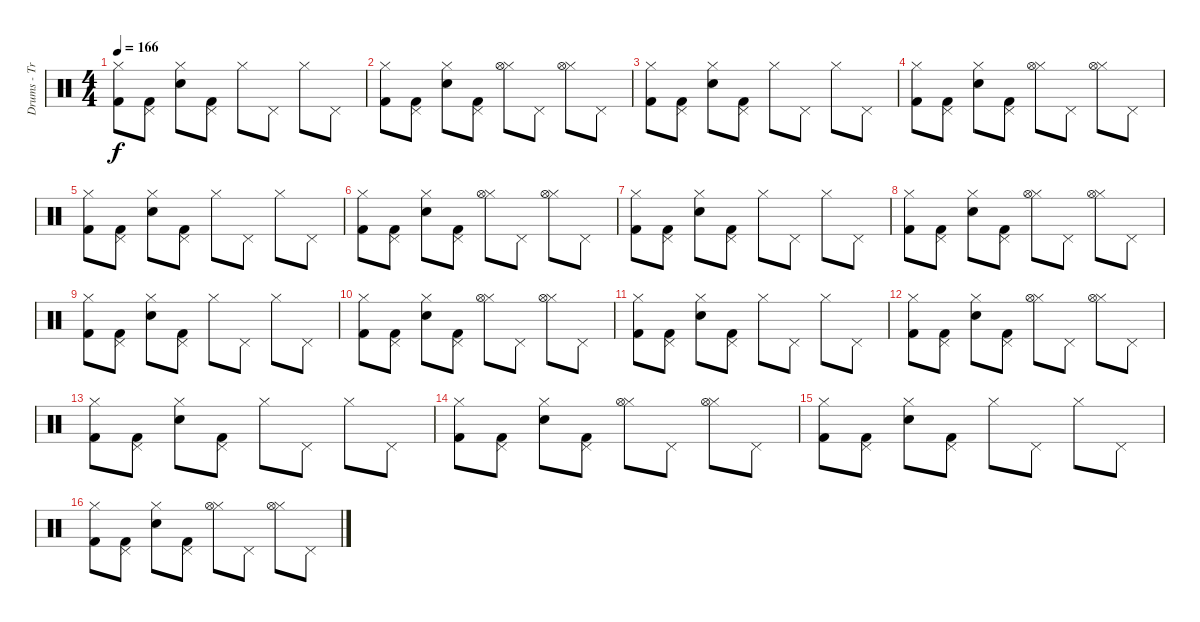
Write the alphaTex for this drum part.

\track ("Drums - Travis Barker" "Drums - Tr") {instrument percussion}
\staff {score}
\articulation defaults
\ts (4 4)
\tempo 166
\clef neutral
\ks c
("Hi-Hat (closed)" "Kick (hit) 2").8{dy f} ("Pedal Hi-Hat (hit)" "Kick (hit) 2").8 ("Hi-Hat (closed)" "Electric Snare (hit)").8 ("Pedal Hi-Hat (hit)" "Kick (hit) 2").8 "Hi-Hat (closed)".8 "Pedal Hi-Hat (hit)".8 "Hi-Hat (closed)".8 "Pedal Hi-Hat (hit)".8 |
("Hi-Hat (closed)" "Kick (hit) 2").8 ("Pedal Hi-Hat (hit)" "Kick (hit) 2").8 ("Hi-Hat (closed)" "Electric Snare (hit)").8 ("Pedal Hi-Hat (hit)" "Kick (hit) 2").8 ("Hi-Hat (closed)" "Hi-Hat (open)").8 "Pedal Hi-Hat (hit)".8 ("Hi-Hat (closed)" "Hi-Hat (open)").8 "Pedal Hi-Hat (hit)".8 |
("Hi-Hat (closed)" "Kick (hit) 2").8 ("Pedal Hi-Hat (hit)" "Kick (hit) 2").8 ("Hi-Hat (closed)" "Electric Snare (hit)").8 ("Pedal Hi-Hat (hit)" "Kick (hit) 2").8 "Hi-Hat (closed)".8 "Pedal Hi-Hat (hit)".8 "Hi-Hat (closed)".8 "Pedal Hi-Hat (hit)".8 |
("Hi-Hat (closed)" "Kick (hit) 2").8 ("Pedal Hi-Hat (hit)" "Kick (hit) 2").8 ("Hi-Hat (closed)" "Electric Snare (hit)").8 ("Pedal Hi-Hat (hit)" "Kick (hit) 2").8 ("Hi-Hat (closed)" "Hi-Hat (open)").8 "Pedal Hi-Hat (hit)".8 ("Hi-Hat (closed)" "Hi-Hat (open)").8 "Pedal Hi-Hat (hit)".8 |
("Hi-Hat (closed)" "Kick (hit) 2").8 ("Pedal Hi-Hat (hit)" "Kick (hit) 2").8 ("Hi-Hat (closed)" "Electric Snare (hit)").8 ("Pedal Hi-Hat (hit)" "Kick (hit) 2").8 "Hi-Hat (closed)".8 "Pedal Hi-Hat (hit)".8 "Hi-Hat (closed)".8 "Pedal Hi-Hat (hit)".8 |
("Hi-Hat (closed)" "Kick (hit) 2").8 ("Pedal Hi-Hat (hit)" "Kick (hit) 2").8 ("Hi-Hat (closed)" "Electric Snare (hit)").8 ("Pedal Hi-Hat (hit)" "Kick (hit) 2").8 ("Hi-Hat (closed)" "Hi-Hat (open)").8 "Pedal Hi-Hat (hit)".8 ("Hi-Hat (closed)" "Hi-Hat (open)").8 "Pedal Hi-Hat (hit)".8 |
("Hi-Hat (closed)" "Kick (hit) 2").8 ("Pedal Hi-Hat (hit)" "Kick (hit) 2").8 ("Hi-Hat (closed)" "Electric Snare (hit)").8 ("Pedal Hi-Hat (hit)" "Kick (hit) 2").8 "Hi-Hat (closed)".8 "Pedal Hi-Hat (hit)".8 "Hi-Hat (closed)".8 "Pedal Hi-Hat (hit)".8 |
("Hi-Hat (closed)" "Kick (hit) 2").8 ("Pedal Hi-Hat (hit)" "Kick (hit) 2").8 ("Hi-Hat (closed)" "Electric Snare (hit)").8 ("Pedal Hi-Hat (hit)" "Kick (hit) 2").8 ("Hi-Hat (closed)" "Hi-Hat (open)").8 "Pedal Hi-Hat (hit)".8 ("Hi-Hat (closed)" "Hi-Hat (open)").8 "Pedal Hi-Hat (hit)".8 |
("Hi-Hat (closed)" "Kick (hit) 2").8 ("Pedal Hi-Hat (hit)" "Kick (hit) 2").8 ("Hi-Hat (closed)" "Electric Snare (hit)").8 ("Pedal Hi-Hat (hit)" "Kick (hit) 2").8 "Hi-Hat (closed)".8 "Pedal Hi-Hat (hit)".8 "Hi-Hat (closed)".8 "Pedal Hi-Hat (hit)".8 |
("Hi-Hat (closed)" "Kick (hit) 2").8 ("Pedal Hi-Hat (hit)" "Kick (hit) 2").8 ("Hi-Hat (closed)" "Electric Snare (hit)").8 ("Pedal Hi-Hat (hit)" "Kick (hit) 2").8 ("Hi-Hat (closed)" "Hi-Hat (open)").8 "Pedal Hi-Hat (hit)".8 ("Hi-Hat (closed)" "Hi-Hat (open)").8 "Pedal Hi-Hat (hit)".8 |
("Hi-Hat (closed)" "Kick (hit) 2").8 ("Pedal Hi-Hat (hit)" "Kick (hit) 2").8 ("Hi-Hat (closed)" "Electric Snare (hit)").8 ("Pedal Hi-Hat (hit)" "Kick (hit) 2").8 "Hi-Hat (closed)".8 "Pedal Hi-Hat (hit)".8 "Hi-Hat (closed)".8 "Pedal Hi-Hat (hit)".8 |
("Hi-Hat (closed)" "Kick (hit) 2").8 ("Pedal Hi-Hat (hit)" "Kick (hit) 2").8 ("Hi-Hat (closed)" "Electric Snare (hit)").8 ("Pedal Hi-Hat (hit)" "Kick (hit) 2").8 ("Hi-Hat (closed)" "Hi-Hat (open)").8 "Pedal Hi-Hat (hit)".8 ("Hi-Hat (closed)" "Hi-Hat (open)").8 "Pedal Hi-Hat (hit)".8 |
("Hi-Hat (closed)" "Kick (hit) 2").8 ("Pedal Hi-Hat (hit)" "Kick (hit) 2").8 ("Hi-Hat (closed)" "Electric Snare (hit)").8 ("Pedal Hi-Hat (hit)" "Kick (hit) 2").8 "Hi-Hat (closed)".8 "Pedal Hi-Hat (hit)".8 "Hi-Hat (closed)".8 "Pedal Hi-Hat (hit)".8 |
("Hi-Hat (closed)" "Kick (hit) 2").8 ("Pedal Hi-Hat (hit)" "Kick (hit) 2").8 ("Hi-Hat (closed)" "Electric Snare (hit)").8 ("Pedal Hi-Hat (hit)" "Kick (hit) 2").8 ("Hi-Hat (closed)" "Hi-Hat (open)").8 "Pedal Hi-Hat (hit)".8 ("Hi-Hat (closed)" "Hi-Hat (open)").8 "Pedal Hi-Hat (hit)".8 |
("Hi-Hat (closed)" "Kick (hit) 2").8 ("Pedal Hi-Hat (hit)" "Kick (hit) 2").8 ("Hi-Hat (closed)" "Electric Snare (hit)").8 ("Pedal Hi-Hat (hit)" "Kick (hit) 2").8 "Hi-Hat (closed)".8 "Pedal Hi-Hat (hit)".8 "Hi-Hat (closed)".8 "Pedal Hi-Hat (hit)".8 |
("Hi-Hat (closed)" "Kick (hit) 2").8 ("Pedal Hi-Hat (hit)" "Kick (hit) 2").8 ("Hi-Hat (closed)" "Electric Snare (hit)").8 ("Pedal Hi-Hat (hit)" "Kick (hit) 2").8 ("Hi-Hat (closed)" "Hi-Hat (open)").8 "Pedal Hi-Hat (hit)".8 ("Hi-Hat (closed)" "Hi-Hat (open)").8 "Pedal Hi-Hat (hit)".8
